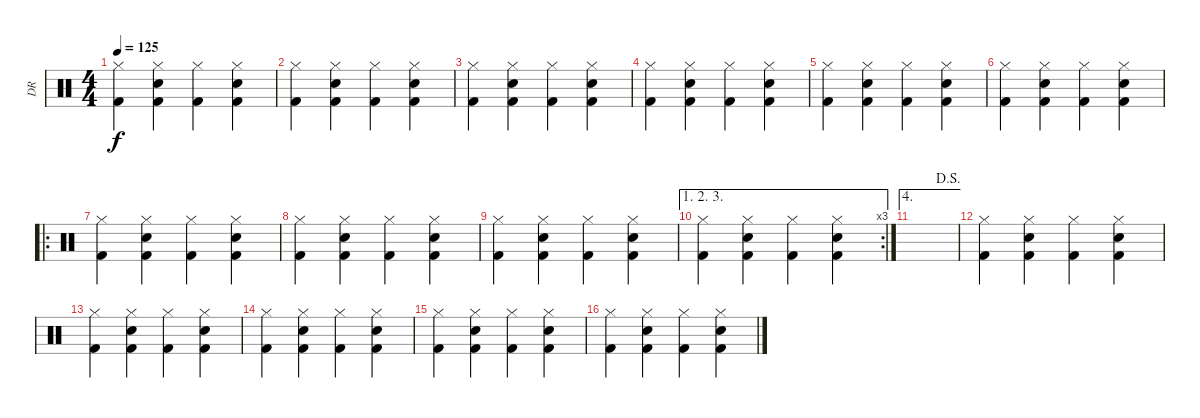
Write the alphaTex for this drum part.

\track ("DR" "DR") {instrument percussion}
\staff {score}
\articulation defaults
\ts (4 4)
\tempo 125
\clef neutral
\ks c
("Hi-Hat (closed)" "Kick (hit) 2").4{dy f} ("Kick (hit) 2" "Hand Clap (hit)" "Hi-Hat (closed)").4 ("Kick (hit) 2" "Hi-Hat (closed)").4 ("Kick (hit) 2" "Hi-Hat (closed)" "Hand Clap (hit)").4 |
("Hi-Hat (closed)" "Kick (hit) 2").4 ("Kick (hit) 2" "Hand Clap (hit)" "Hi-Hat (closed)").4 ("Kick (hit) 2" "Hi-Hat (closed)").4 ("Kick (hit) 2" "Hi-Hat (closed)" "Hand Clap (hit)").4 |
("Hi-Hat (closed)" "Kick (hit) 2").4 ("Kick (hit) 2" "Hand Clap (hit)" "Hi-Hat (closed)").4 ("Kick (hit) 2" "Hi-Hat (closed)").4 ("Kick (hit) 2" "Hi-Hat (closed)" "Hand Clap (hit)").4 |
("Hi-Hat (closed)" "Kick (hit) 2").4 ("Kick (hit) 2" "Hand Clap (hit)" "Hi-Hat (closed)").4 ("Kick (hit) 2" "Hi-Hat (closed)").4 ("Kick (hit) 2" "Hi-Hat (closed)" "Hand Clap (hit)").4 |
("Hi-Hat (closed)" "Kick (hit) 2").4 ("Kick (hit) 2" "Hand Clap (hit)" "Hi-Hat (closed)").4 ("Kick (hit) 2" "Hi-Hat (closed)").4 ("Kick (hit) 2" "Hi-Hat (closed)" "Hand Clap (hit)").4 |
("Hi-Hat (closed)" "Kick (hit) 2").4 ("Kick (hit) 2" "Hand Clap (hit)" "Hi-Hat (closed)").4 ("Kick (hit) 2" "Hi-Hat (closed)").4 ("Kick (hit) 2" "Hi-Hat (closed)" "Hand Clap (hit)").4 |
\ro
("Hi-Hat (closed)" "Kick (hit) 2").4 ("Kick (hit) 2" "Hand Clap (hit)" "Hi-Hat (closed)").4 ("Kick (hit) 2" "Hi-Hat (closed)").4 ("Kick (hit) 2" "Hi-Hat (closed)" "Hand Clap (hit)").4 |
("Hi-Hat (closed)" "Kick (hit) 2").4 ("Kick (hit) 2" "Hand Clap (hit)" "Hi-Hat (closed)").4 ("Kick (hit) 2" "Hi-Hat (closed)").4 ("Kick (hit) 2" "Hi-Hat (closed)" "Hand Clap (hit)").4 |
("Hi-Hat (closed)" "Kick (hit) 2").4 ("Kick (hit) 2" "Hand Clap (hit)" "Hi-Hat (closed)").4 ("Kick (hit) 2" "Hi-Hat (closed)").4 ("Kick (hit) 2" "Hi-Hat (closed)" "Hand Clap (hit)").4 |
\ae (1 2 3)
\rc 3
("Hi-Hat (closed)" "Kick (hit) 2").4 ("Kick (hit) 2" "Hand Clap (hit)" "Hi-Hat (closed)").4 ("Kick (hit) 2" "Hi-Hat (closed)").4 ("Kick (hit) 2" "Hi-Hat (closed)" "Hand Clap (hit)").4 |
\ae 4
\jump dalsegno
|
("Hi-Hat (closed)" "Kick (hit) 2").4 ("Kick (hit) 2" "Hand Clap (hit)" "Hi-Hat (closed)").4 ("Kick (hit) 2" "Hi-Hat (closed)").4 ("Kick (hit) 2" "Hi-Hat (closed)" "Hand Clap (hit)").4 |
("Hi-Hat (closed)" "Kick (hit) 2").4 ("Kick (hit) 2" "Hand Clap (hit)" "Hi-Hat (closed)").4 ("Kick (hit) 2" "Hi-Hat (closed)").4 ("Kick (hit) 2" "Hi-Hat (closed)" "Hand Clap (hit)").4 |
("Hi-Hat (closed)" "Kick (hit) 2").4 ("Kick (hit) 2" "Hand Clap (hit)" "Hi-Hat (closed)").4 ("Kick (hit) 2" "Hi-Hat (closed)").4 ("Kick (hit) 2" "Hi-Hat (closed)" "Hand Clap (hit)").4 |
("Hi-Hat (closed)" "Kick (hit) 2").4 ("Kick (hit) 2" "Hand Clap (hit)" "Hi-Hat (closed)").4 ("Kick (hit) 2" "Hi-Hat (closed)").4 ("Kick (hit) 2" "Hi-Hat (closed)" "Hand Clap (hit)").4 |
("Hi-Hat (closed)" "Kick (hit) 2").4 ("Kick (hit) 2" "Hand Clap (hit)" "Hi-Hat (closed)").4 ("Kick (hit) 2" "Hi-Hat (closed)").4 ("Kick (hit) 2" "Hi-Hat (closed)" "Hand Clap (hit)").4
